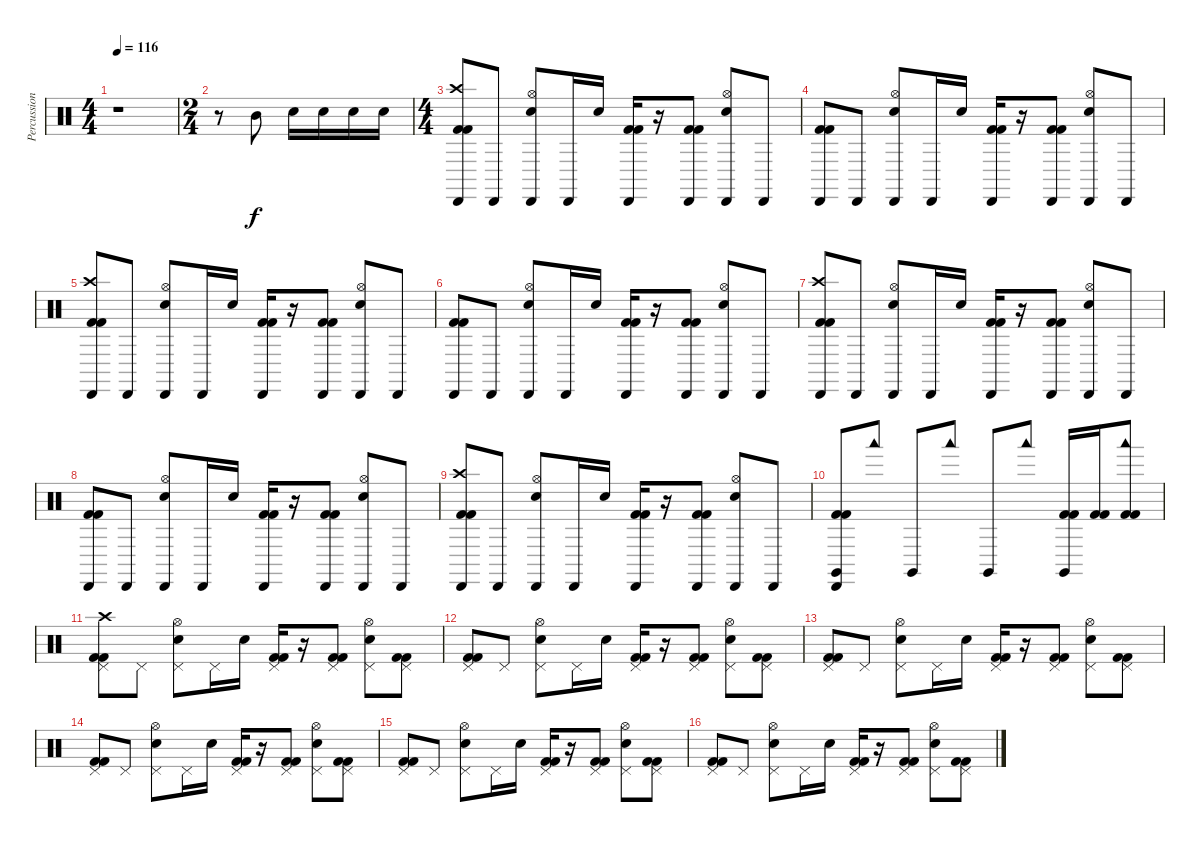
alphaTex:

\track ("Percussion" "Percussion") {instrument percussion}
\staff {score}
\articulation defaults
\ts (4 4)
\tempo 116
\clef neutral
\ks c
r.1{dy f} |
\ts (2 4)
r.8 "Mid Tom (hit)".8 "Electric Snare (hit)".16 "Electric Snare (hit)".16 "Electric Snare (hit)".16 "Electric Snare (hit)".16 |
\ts (4 4)
("Cabasa (hit)" "Crash high (hit)" "Kick (hit) 2" "Kick (hit) 2").8 "Cabasa (hit)".8 ("Cabasa (hit)" "Hi-Hat (open)" "Snare (hit) 2").8 "Cabasa (hit)".16 "Snare (hit) 2".16 ("Cabasa (hit)" "Kick (hit) 2" "Kick (hit) 2").16 r.16 ("Cabasa (hit)" "Kick (hit) 2" "Kick (hit) 2").8 ("Cabasa (hit)" "Hi-Hat (open)" "Snare (hit) 2").8 "Cabasa (hit)".8 |
("Cabasa (hit)" "Kick (hit) 2" "Kick (hit) 2").8 "Cabasa (hit)".8 ("Cabasa (hit)" "Hi-Hat (open)" "Snare (hit) 2").8 "Cabasa (hit)".16 "Snare (hit) 2".16 ("Cabasa (hit)" "Kick (hit) 2" "Kick (hit) 2").16 r.16 ("Cabasa (hit)" "Kick (hit) 2" "Kick (hit) 2").8 ("Cabasa (hit)" "Hi-Hat (open)" "Snare (hit) 2").8 "Cabasa (hit)".8 |
("Cabasa (hit)" "Crash high (hit)" "Kick (hit) 2" "Kick (hit) 2").8 "Cabasa (hit)".8 ("Cabasa (hit)" "Hi-Hat (open)" "Snare (hit) 2").8 "Cabasa (hit)".16 "Snare (hit) 2".16 ("Cabasa (hit)" "Kick (hit) 2" "Kick (hit) 2").16 r.16 ("Cabasa (hit)" "Kick (hit) 2" "Kick (hit) 2").8 ("Cabasa (hit)" "Hi-Hat (open)" "Snare (hit) 2").8 "Cabasa (hit)".8 |
("Cabasa (hit)" "Kick (hit) 2" "Kick (hit) 2").8 "Cabasa (hit)".8 ("Cabasa (hit)" "Hi-Hat (open)" "Snare (hit) 2").8 "Cabasa (hit)".16 "Snare (hit) 2".16 ("Cabasa (hit)" "Kick (hit) 2" "Kick (hit) 2").16 r.16 ("Cabasa (hit)" "Kick (hit) 2" "Kick (hit) 2").8 ("Cabasa (hit)" "Hi-Hat (open)" "Snare (hit) 2").8 "Cabasa (hit)".8 |
("Cabasa (hit)" "Crash high (hit)" "Kick (hit) 2" "Kick (hit) 2").8 "Cabasa (hit)".8 ("Cabasa (hit)" "Hi-Hat (open)" "Snare (hit) 2").8 "Cabasa (hit)".16 "Snare (hit) 2".16 ("Cabasa (hit)" "Kick (hit) 2" "Kick (hit) 2").16 r.16 ("Cabasa (hit)" "Kick (hit) 2" "Kick (hit) 2").8 ("Cabasa (hit)" "Hi-Hat (open)" "Snare (hit) 2").8 "Cabasa (hit)".8 |
("Cabasa (hit)" "Kick (hit) 2" "Kick (hit) 2").8 "Cabasa (hit)".8 ("Cabasa (hit)" "Hi-Hat (open)" "Snare (hit) 2").8 "Cabasa (hit)".16 "Snare (hit) 2".16 ("Cabasa (hit)" "Kick (hit) 2" "Kick (hit) 2").16 r.16 ("Cabasa (hit)" "Kick (hit) 2" "Kick (hit) 2").8 ("Cabasa (hit)" "Hi-Hat (open)" "Snare (hit) 2").8 "Cabasa (hit)".8 |
("Cabasa (hit)" "Crash high (hit)" "Kick (hit) 2" "Kick (hit) 2").8 "Cabasa (hit)".8 ("Cabasa (hit)" "Hi-Hat (open)" "Snare (hit) 2").8 "Cabasa (hit)".16 "Snare (hit) 2".16 ("Cabasa (hit)" "Kick (hit) 2" "Kick (hit) 2").16 r.16 ("Cabasa (hit)" "Kick (hit) 2" "Kick (hit) 2").8 ("Cabasa (hit)" "Hi-Hat (open)" "Snare (hit) 2").8 "Cabasa (hit)".8 |
("Cabasa (hit)" "Claves (hit)" "Kick (hit) 2" "Kick (hit) 2").8 "Woodblock low (hit)".8 "Claves (hit)".8 "Woodblock low (hit)".8 "Claves (hit)".8 "Woodblock low (hit)".8 ("Claves (hit)" "Kick (hit) 2" "Kick (hit) 2").16 ("Kick (hit) 2" "Kick (hit) 2").16 ("Woodblock low (hit)" "Kick (hit) 2" "Kick (hit) 2").8 |
("Pedal Hi-Hat (hit)" "Crash high (hit)" "Kick (hit) 2" "Kick (hit) 2").8 "Pedal Hi-Hat (hit)".8 ("Pedal Hi-Hat (hit)" "Hi-Hat (open)" "Snare (hit) 2").8 "Pedal Hi-Hat (hit)".16 "Snare (hit) 2".16 ("Pedal Hi-Hat (hit)" "Kick (hit) 2" "Kick (hit) 2").16 r.16 ("Pedal Hi-Hat (hit)" "Kick (hit) 2" "Kick (hit) 2").8 ("Pedal Hi-Hat (hit)" "Hi-Hat (open)" "Snare (hit) 2").8 ("Pedal Hi-Hat (hit)" "Kick (hit) 2" "Kick (hit) 2").8 |
("Pedal Hi-Hat (hit)" "Kick (hit) 2" "Kick (hit) 2").8 "Pedal Hi-Hat (hit)".8 ("Pedal Hi-Hat (hit)" "Hi-Hat (open)" "Snare (hit) 2").8 "Pedal Hi-Hat (hit)".16 "Snare (hit) 2".16 ("Pedal Hi-Hat (hit)" "Kick (hit) 2" "Kick (hit) 2").16 r.16 ("Pedal Hi-Hat (hit)" "Kick (hit) 2" "Kick (hit) 2").8 ("Pedal Hi-Hat (hit)" "Hi-Hat (open)" "Snare (hit) 2").8 ("Pedal Hi-Hat (hit)" "Kick (hit) 2" "Kick (hit) 2").8 |
("Pedal Hi-Hat (hit)" "Kick (hit) 2" "Kick (hit) 2").8 "Pedal Hi-Hat (hit)".8 ("Pedal Hi-Hat (hit)" "Hi-Hat (open)" "Snare (hit) 2").8 "Pedal Hi-Hat (hit)".16 "Snare (hit) 2".16 ("Pedal Hi-Hat (hit)" "Kick (hit) 2" "Kick (hit) 2").16 r.16 ("Pedal Hi-Hat (hit)" "Kick (hit) 2" "Kick (hit) 2").8 ("Pedal Hi-Hat (hit)" "Hi-Hat (open)" "Snare (hit) 2").8 ("Pedal Hi-Hat (hit)" "Kick (hit) 2" "Kick (hit) 2").8 |
("Pedal Hi-Hat (hit)" "Kick (hit) 2" "Kick (hit) 2").8 "Pedal Hi-Hat (hit)".8 ("Pedal Hi-Hat (hit)" "Hi-Hat (open)" "Snare (hit) 2").8 "Pedal Hi-Hat (hit)".16 "Snare (hit) 2".16 ("Pedal Hi-Hat (hit)" "Kick (hit) 2" "Kick (hit) 2").16 r.16 ("Pedal Hi-Hat (hit)" "Kick (hit) 2" "Kick (hit) 2").8 ("Pedal Hi-Hat (hit)" "Hi-Hat (open)" "Snare (hit) 2").8 ("Pedal Hi-Hat (hit)" "Kick (hit) 2" "Kick (hit) 2").8 |
("Pedal Hi-Hat (hit)" "Kick (hit) 2" "Kick (hit) 2").8 "Pedal Hi-Hat (hit)".8 ("Pedal Hi-Hat (hit)" "Hi-Hat (open)" "Snare (hit) 2").8 "Pedal Hi-Hat (hit)".16 "Snare (hit) 2".16 ("Pedal Hi-Hat (hit)" "Kick (hit) 2" "Kick (hit) 2").16 r.16 ("Pedal Hi-Hat (hit)" "Kick (hit) 2" "Kick (hit) 2").8 ("Pedal Hi-Hat (hit)" "Hi-Hat (open)" "Snare (hit) 2").8 ("Pedal Hi-Hat (hit)" "Kick (hit) 2" "Kick (hit) 2").8 |
("Pedal Hi-Hat (hit)" "Kick (hit) 2" "Kick (hit) 2").8 "Pedal Hi-Hat (hit)".8 ("Pedal Hi-Hat (hit)" "Hi-Hat (open)" "Snare (hit) 2").8 "Pedal Hi-Hat (hit)".16 "Snare (hit) 2".16 ("Pedal Hi-Hat (hit)" "Kick (hit) 2" "Kick (hit) 2").16 r.16 ("Pedal Hi-Hat (hit)" "Kick (hit) 2" "Kick (hit) 2").8 ("Pedal Hi-Hat (hit)" "Hi-Hat (open)" "Snare (hit) 2").8 ("Pedal Hi-Hat (hit)" "Kick (hit) 2" "Kick (hit) 2").8
